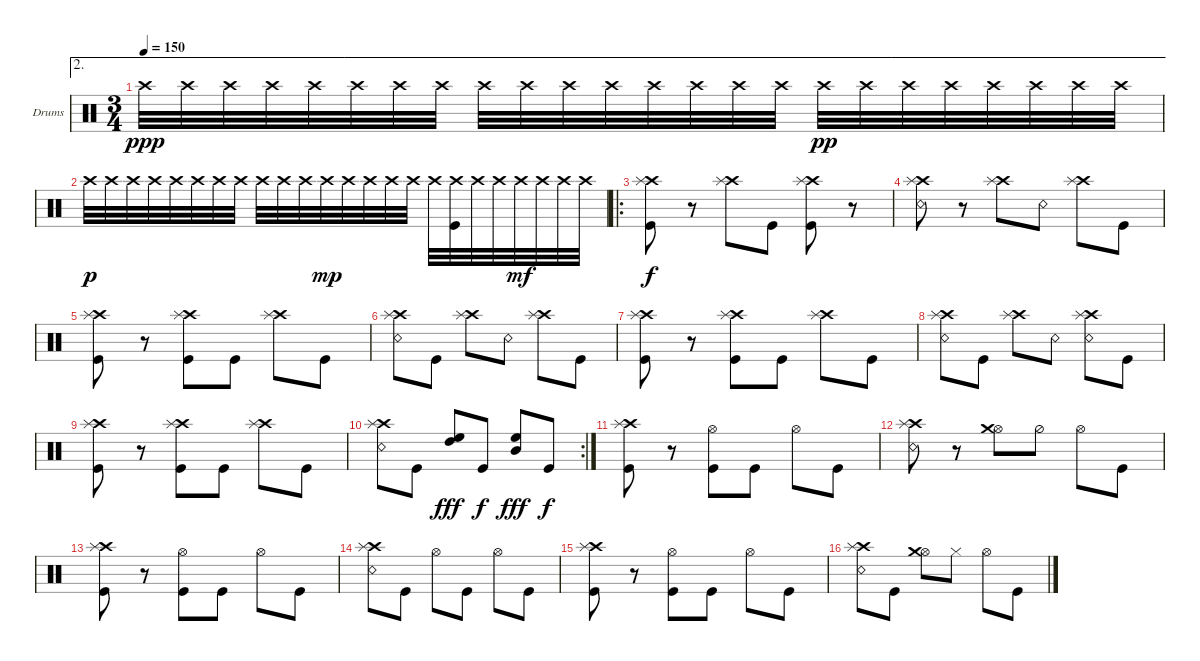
\defaultSystemsLayout 4
\bracketExtendMode groupsimilarinstruments
\firstSystemTrackNameOrientation horizontal
\otherSystemsTrackNameOrientation horizontal
\track ("Scott" "Drums") {instrument percussion}
\staff {score}
\articulation defaults
\ae 2
\ts (3 4)
\tempo 150
\clef neutral
\scale
0.322034
\ks c "Crash high (hit)".32{dy ppp} "Crash high (hit)".32 "Crash high (hit)".32 "Crash high (hit)".32 "Crash high (hit)".32 "Crash high (hit)".32 "Crash high (hit)".32 "Crash high (hit)".32 "Crash high (hit)".32 "Crash high (hit)".32 "Crash high (hit)".32 "Crash high (hit)".32 "Crash high (hit)".32 "Crash high (hit)".32 "Crash high (hit)".32 "Crash high (hit)".32 "Crash high (hit)".32{dy pp} "Crash high (hit)".32 "Crash high (hit)".32 "Crash high (hit)".32 "Crash high (hit)".32 "Crash high (hit)".32 "Crash high (hit)".32 "Crash high (hit)".32
|
\scale
0.322034 "Crash high (hit)".32{dy p} "Crash high (hit)".32 "Crash high (hit)".32 "Crash high (hit)".32 "Crash high (hit)".32 "Crash high (hit)".32 "Crash high (hit)".32 "Crash high (hit)".32 "Crash high (hit)".32 "Crash high (hit)".32 "Crash high (hit)".32 "Crash high (hit)".32{dy mp} "Crash high (hit)".32 "Crash high (hit)".32 "Crash high (hit)".32 "Crash high (hit)".32 "Crash high (hit)".32 ("Crash high (hit)" "Kick (hit)").32 "Crash high (hit)".32 "Crash high (hit)".32 "Crash high (hit)".32{dy mf} "Crash high (hit)".32 "Crash high (hit)".32 "Crash high (hit)".32 |
\ro
\scale
0.377049 ("Kick (hit)" "Crash high (hit)" "Splash (hit)").8{dy f} r.8 ("Crash high (hit)" "Splash (hit)").8 "Kick (hit)".8 ("Crash high (hit)" "Splash (hit)" "Kick (hit)").8 r.8 |
\scale
0.311475 ("Snare (rim shot)" "Crash high (hit)" "Splash (hit)").8 r.8 ("Crash high (hit)" "Splash (hit)").8 "Snare (rim shot)".8 ("Crash high (hit)" "Splash (hit)").8 "Kick (hit)".8 |
\scale
0.311475 ("Kick (hit)" "Crash high (hit)" "Splash (hit)").8 r.8 ("Crash high (hit)" "Splash (hit)" "Kick (hit)").8 "Kick (hit)".8 ("Crash high (hit)" "Splash (hit)").8 "Kick (hit)".8 |
\scale
0.333333 ("Snare (rim shot)" "Crash high (hit)" "Splash (hit)").8 "Kick (hit)".8 ("Crash high (hit)" "Splash (hit)").8 "Snare (rim shot)".8 ("Crash high (hit)" "Splash (hit)").8 "Kick (hit)".8 |
\scale
0.333333 ("Kick (hit)" "Crash high (hit)" "Splash (hit)").8 r.8 ("Kick (hit)" "Crash high (hit)" "Splash (hit)").8 "Kick (hit)".8 ("Crash high (hit)" "Splash (hit)").8 "Kick (hit)".8 |
\scale
0.333333 ("Snare (rim shot)" "Crash high (hit)" "Splash (hit)").8 "Kick (hit)".8 ("Crash high (hit)" "Splash (hit)").8 "Snare (rim shot)".8 ("Crash high (hit)" "Splash (hit)" "Snare (rim shot)").8 "Kick (hit)".8 |
\scale
0.322034 ("Kick (hit)" "Crash high (hit)" "Splash (hit)").8 r.8 ("Kick (hit)" "Crash high (hit)" "Splash (hit)").8 "Kick (hit)".8 ("Crash high (hit)" "Splash (hit)").8 "Kick (hit)".8 |
\rc 2
\scale
0.355932 ("Snare (rim shot)" "Crash high (hit)" "Splash (hit)").8 "Kick (hit)".8 ("High Tom (hit)" "High Floor Tom (hit)").8{dy fff} "Kick (hit)".8{dy f} ("High Floor Tom (hit)" "Mid Tom (hit)").8{dy fff} "Kick (hit)".8{dy f} |
\scale
0.322034 ("Kick (hit)" "Crash high (hit)" "Splash (hit)").8 r.8 ("Kick (hit)" "Hi-Hat (open)").8 "Kick (hit)".8 "Hi-Hat (open)".8 "Kick (hit)".8 |
\scale
0.333333 ("Snare (rim shot)" "Crash high (hit)" "Splash (hit)").8 r.8 ("Hi-Hat (open)" "Crash medium (hit)").8 "Hi-Hat (half)".8 "Hi-Hat (open)".8 "Kick (hit)".8 |
\scale
0.333333 ("Kick (hit)" "Crash high (hit)" "Splash (hit)").8 r.8 ("Kick (hit)" "Hi-Hat (open)").8 "Kick (hit)".8 "Hi-Hat (open)".8 "Kick (hit)".8 |
\scale
0.333333 ("Snare (rim shot)" "Crash high (hit)" "Splash (hit)").8 "Kick (hit)".8 "Hi-Hat (open)".8 "Kick (hit)".8 "Hi-Hat (open)".8 "Kick (hit)".8 |
\scale
0.333333 ("Kick (hit)" "Crash high (hit)" "Splash (hit)").8 r.8 ("Kick (hit)" "Hi-Hat (open)").8 "Kick (hit)".8 "Hi-Hat (open)".8 "Kick (hit)".8 |
\scale
0.333333 ("Snare (rim shot)" "Crash high (hit)" "Splash (hit)").8 "Kick (hit)".8 ("Hi-Hat (open)" "Crash medium (hit)").8 "Hi-Hat (closed)".8 "Hi-Hat (open)".8 "Kick (hit)".8
